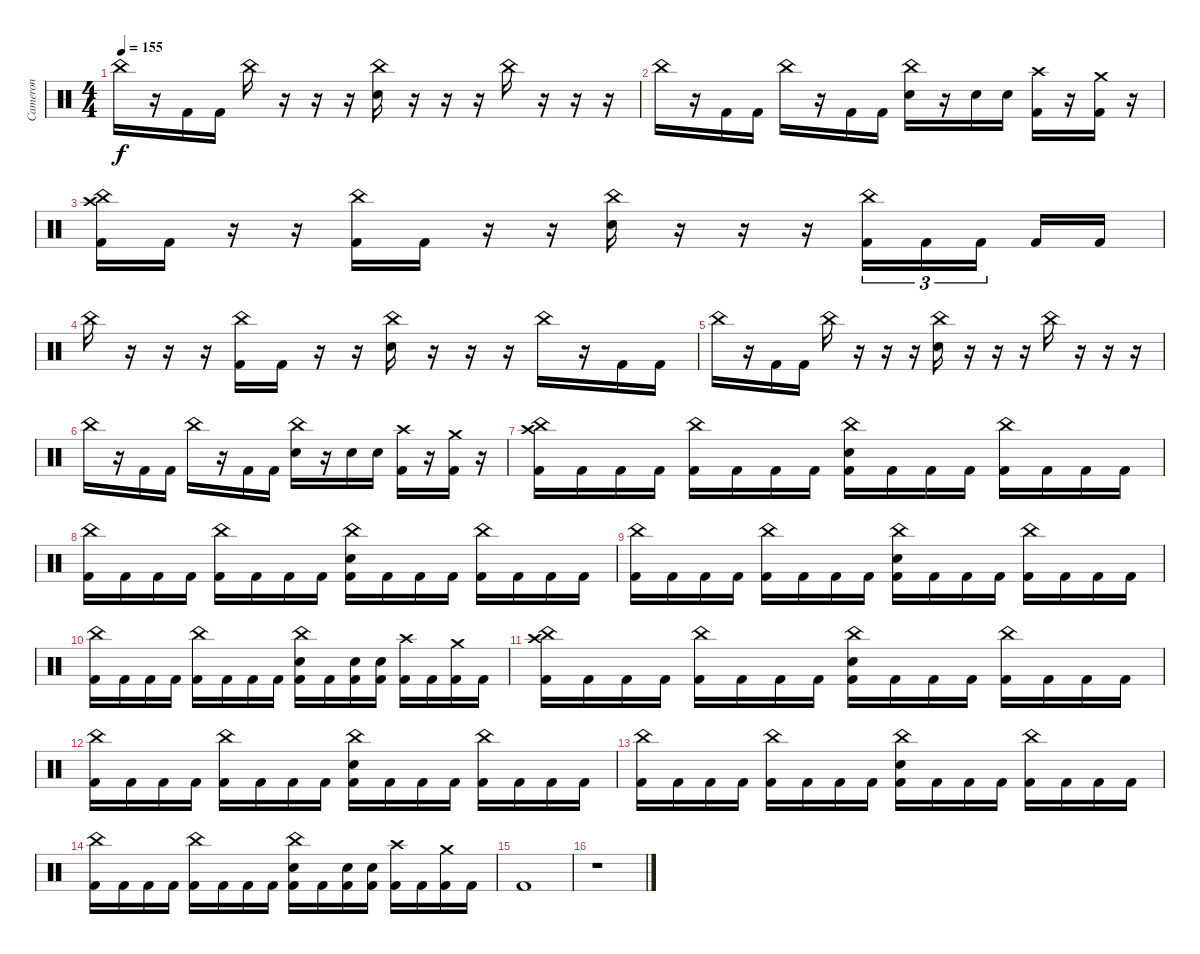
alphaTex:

\track ("Cameron" "Cameron") {instrument percussion}
\staff {score}
\articulation defaults
\ts (4 4)
\tempo 155
\clef neutral
\ks c "China (hit)".16{dy f}
r.16 "Kick (hit) 2".16 "Kick (hit) 2".16 "China (hit)".16 r.16 r.16 r.16 ("China (hit)" "Snare (hit) 2").16 r.16 r.16 r.16 "China (hit)".16 r.16 r.16 r.16 |
"China (hit)".16 r.16 "Kick (hit) 2".16 "Kick (hit) 2".16 "China (hit)".16 r.16 "Kick (hit) 2".16 "Kick (hit) 2".16 ("China (hit)" "Snare (hit) 2").16 r.16 "Snare (hit) 2".16 "Snare (hit) 2".16 ("Crash high (hit)" "Kick (hit) 2").16 r.16 ("Crash medium (hit)" "Kick (hit) 2").16 r.16 |
("Crash high (hit)" "China (hit)" "Kick (hit) 2").16 "Kick (hit) 2".16 r.16 r.16 ("China (hit)" "Kick (hit) 2").16 "Kick (hit) 2".16 r.16 r.16 ("China (hit)" "Snare (hit) 2").16 r.16 r.16 r.16 ("China (hit)" "Kick (hit) 2").16{tu (3 2)} "Kick (hit) 2".16{tu (3 2)} "Kick (hit) 2".16{tu (3 2) beam splitsecondary} "Kick (hit) 2".16 "Kick (hit) 2".16 |
"China (hit)".16 r.16 r.16 r.16 ("China (hit)" "Kick (hit) 2").16 "Kick (hit) 2".16 r.16 r.16 ("China (hit)" "Snare (hit) 2").16 r.16 r.16 r.16 "China (hit)".16 r.16 "Kick (hit) 2".16 "Kick (hit) 2".16 |
"China (hit)".16 r.16 "Kick (hit) 2".16 "Kick (hit) 2".16 "China (hit)".16 r.16 r.16 r.16 ("China (hit)" "Snare (hit) 2").16 r.16 r.16 r.16 "China (hit)".16 r.16 r.16 r.16 |
"China (hit)".16 r.16 "Kick (hit) 2".16 "Kick (hit) 2".16 "China (hit)".16 r.16 "Kick (hit) 2".16 "Kick (hit) 2".16 ("China (hit)" "Snare (hit) 2").16 r.16 "Snare (hit) 2".16 "Snare (hit) 2".16 ("Crash high (hit)" "Kick (hit) 2").16 r.16 ("Crash medium (hit)" "Kick (hit) 2").16 r.16 |
("Crash high (hit)" "China (hit)" "Kick (hit) 2").16 "Kick (hit) 2".16 "Kick (hit) 2".16 "Kick (hit) 2".16 ("China (hit)" "Kick (hit) 2").16 "Kick (hit) 2".16 "Kick (hit) 2".16 "Kick (hit) 2".16 ("China (hit)" "Snare (hit) 2" "Kick (hit) 2").16 "Kick (hit) 2".16 "Kick (hit) 2".16 "Kick (hit) 2".16 ("China (hit)" "Kick (hit) 2").16 "Kick (hit) 2".16 "Kick (hit) 2".16 "Kick (hit) 2".16 |
("China (hit)" "Kick (hit) 2").16 "Kick (hit) 2".16 "Kick (hit) 2".16 "Kick (hit) 2".16 ("China (hit)" "Kick (hit) 2").16 "Kick (hit) 2".16 "Kick (hit) 2".16 "Kick (hit) 2".16 ("China (hit)" "Snare (hit) 2" "Kick (hit) 2").16 "Kick (hit) 2".16 "Kick (hit) 2".16 "Kick (hit) 2".16 ("China (hit)" "Kick (hit) 2").16 "Kick (hit) 2".16 "Kick (hit) 2".16 "Kick (hit) 2".16 |
("China (hit)" "Kick (hit) 2").16 "Kick (hit) 2".16 "Kick (hit) 2".16 "Kick (hit) 2".16 ("China (hit)" "Kick (hit) 2").16 "Kick (hit) 2".16 "Kick (hit) 2".16 "Kick (hit) 2".16 ("China (hit)" "Snare (hit) 2" "Kick (hit) 2").16 "Kick (hit) 2".16 "Kick (hit) 2".16 "Kick (hit) 2".16 ("China (hit)" "Kick (hit) 2").16 "Kick (hit) 2".16 "Kick (hit) 2".16 "Kick (hit) 2".16 |
("China (hit)" "Kick (hit) 2").16 "Kick (hit) 2".16 "Kick (hit) 2".16 "Kick (hit) 2".16 ("China (hit)" "Kick (hit) 2").16 "Kick (hit) 2".16 "Kick (hit) 2".16 "Kick (hit) 2".16 ("China (hit)" "Snare (hit) 2" "Kick (hit) 2").16 "Kick (hit) 2".16 ("Snare (hit) 2" "Kick (hit) 2").16 ("Snare (hit) 2" "Kick (hit) 2").16 ("Crash high (hit)" "Kick (hit) 2").16 "Kick (hit) 2".16 ("Crash medium (hit)" "Kick (hit) 2").16 "Kick (hit) 2".16 |
("Crash high (hit)" "China (hit)" "Kick (hit) 2").16 "Kick (hit) 2".16 "Kick (hit) 2".16 "Kick (hit) 2".16 ("China (hit)" "Kick (hit) 2").16 "Kick (hit) 2".16 "Kick (hit) 2".16 "Kick (hit) 2".16 ("China (hit)" "Snare (hit) 2" "Kick (hit) 2").16 "Kick (hit) 2".16 "Kick (hit) 2".16 "Kick (hit) 2".16 ("China (hit)" "Kick (hit) 2").16 "Kick (hit) 2".16 "Kick (hit) 2".16 "Kick (hit) 2".16 |
("China (hit)" "Kick (hit) 2").16 "Kick (hit) 2".16 "Kick (hit) 2".16 "Kick (hit) 2".16 ("China (hit)" "Kick (hit) 2").16 "Kick (hit) 2".16 "Kick (hit) 2".16 "Kick (hit) 2".16 ("China (hit)" "Snare (hit) 2" "Kick (hit) 2").16 "Kick (hit) 2".16 "Kick (hit) 2".16 "Kick (hit) 2".16 ("China (hit)" "Kick (hit) 2").16 "Kick (hit) 2".16 "Kick (hit) 2".16 "Kick (hit) 2".16 |
("China (hit)" "Kick (hit) 2").16 "Kick (hit) 2".16 "Kick (hit) 2".16 "Kick (hit) 2".16 ("China (hit)" "Kick (hit) 2").16 "Kick (hit) 2".16 "Kick (hit) 2".16 "Kick (hit) 2".16 ("China (hit)" "Snare (hit) 2" "Kick (hit) 2").16 "Kick (hit) 2".16 "Kick (hit) 2".16 "Kick (hit) 2".16 ("China (hit)" "Kick (hit) 2").16 "Kick (hit) 2".16 "Kick (hit) 2".16 "Kick (hit) 2".16 |
("China (hit)" "Kick (hit) 2").16 "Kick (hit) 2".16 "Kick (hit) 2".16 "Kick (hit) 2".16 ("China (hit)" "Kick (hit) 2").16 "Kick (hit) 2".16 "Kick (hit) 2".16 "Kick (hit) 2".16 ("China (hit)" "Snare (hit) 2" "Kick (hit) 2").16 "Kick (hit) 2".16 ("Snare (hit) 2" "Kick (hit) 2").16 ("Snare (hit) 2" "Kick (hit) 2").16 ("Crash high (hit)" "Kick (hit) 2").16 "Kick (hit) 2".16 ("Crash medium (hit)" "Kick (hit) 2").16 "Kick (hit) 2".16 |
"Kick (hit) 2".1{volume 8} |
r.1
